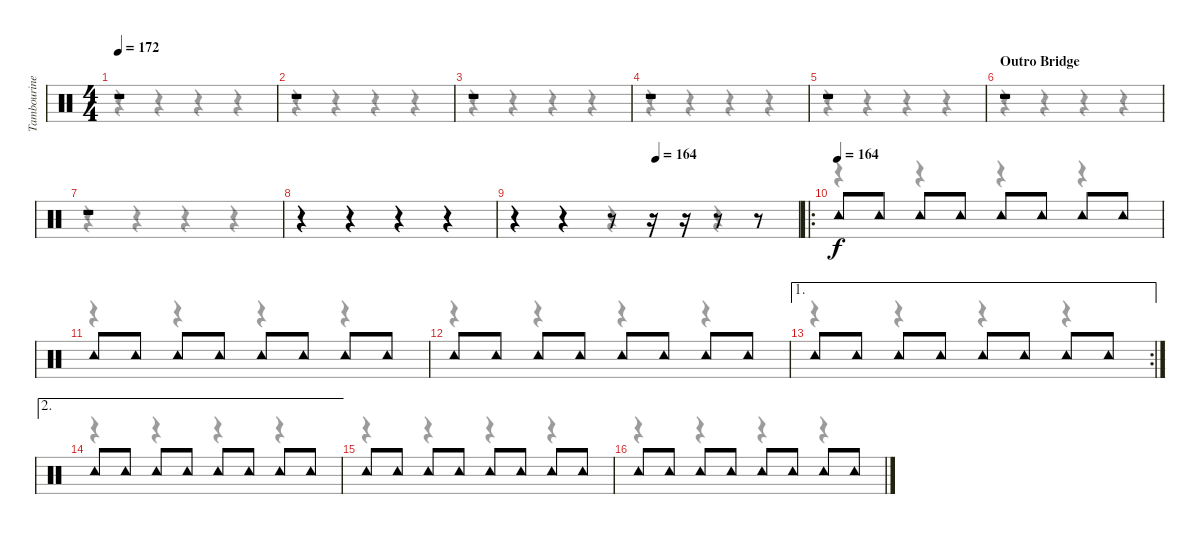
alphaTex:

\track ("Tambourine" "Tambourine") {instrument percussion}
\staff {score}
\articulation defaults
\voice
\ts (4 4)
\tempo 172
\clef neutral
\ks c
r.1{dy f} |
r.1 |
r.1 |
r.1 |
r.1 |
\section ("" "Outro Bridge")
r.1 |
r.1 |
r.4 r.4 r.4 r.4 |
\tempo (164 0.5)
r.4 r.4 r.8 r.16 r.16 r.8 r.8 |
\ro
\tempo (164)
"Tambourine (hit)".8 "Tambourine (hit)".8 "Tambourine (hit)".8 "Tambourine (hit)".8 "Tambourine (hit)".8 "Tambourine (hit)".8 "Tambourine (hit)".8 "Tambourine (hit)".8 |
"Tambourine (hit)".8 "Tambourine (hit)".8 "Tambourine (hit)".8 "Tambourine (hit)".8 "Tambourine (hit)".8 "Tambourine (hit)".8 "Tambourine (hit)".8 "Tambourine (hit)".8 |
"Tambourine (hit)".8 "Tambourine (hit)".8 "Tambourine (hit)".8 "Tambourine (hit)".8 "Tambourine (hit)".8 "Tambourine (hit)".8 "Tambourine (hit)".8 "Tambourine (hit)".8 |
\ae 1
\rc 2 "Tambourine (hit)".8 "Tambourine (hit)".8 "Tambourine (hit)".8 "Tambourine (hit)".8 "Tambourine (hit)".8 "Tambourine (hit)".8 "Tambourine (hit)".8 "Tambourine (hit)".8
|
\ae 2 "Tambourine (hit)".8 "Tambourine (hit)".8 "Tambourine (hit)".8 "Tambourine (hit)".8 "Tambourine (hit)".8 "Tambourine (hit)".8 "Tambourine (hit)".8 "Tambourine (hit)".8
|
"Tambourine (hit)".8 "Tambourine (hit)".8 "Tambourine (hit)".8 "Tambourine (hit)".8 "Tambourine (hit)".8 "Tambourine (hit)".8 "Tambourine (hit)".8 "Tambourine (hit)".8 |
"Tambourine (hit)".8 "Tambourine (hit)".8 "Tambourine (hit)".8 "Tambourine (hit)".8 "Tambourine (hit)".8 "Tambourine (hit)".8 "Tambourine (hit)".8 "Tambourine (hit)".8
\voice
\clef neutral
\ottava regular
\simile none
\ks c
r.4{dy f} r.4 r.4 r.4 |
r.4 r.4 r.4 r.4 |
r.4 r.4 r.4 r.4 |
r.4 r.4 r.4 r.4 |
r.4 r.4 r.4 r.4 |
r.4 r.4 r.4 r.4 |
r.4 r.4 r.4 r.4 |
r.4 r.4 r.4 r.4 |
r.4 r.4 r.4 r.4 |
r.4 r.4 r.4 r.4 |
r.4 r.4 r.4 r.4 |
r.4 r.4 r.4 r.4 |
r.4 r.4 r.4 r.4 |
r.4 r.4 r.4 r.4 |
r.4 r.4 r.4 r.4 |
r.4 r.4 r.4 r.4
